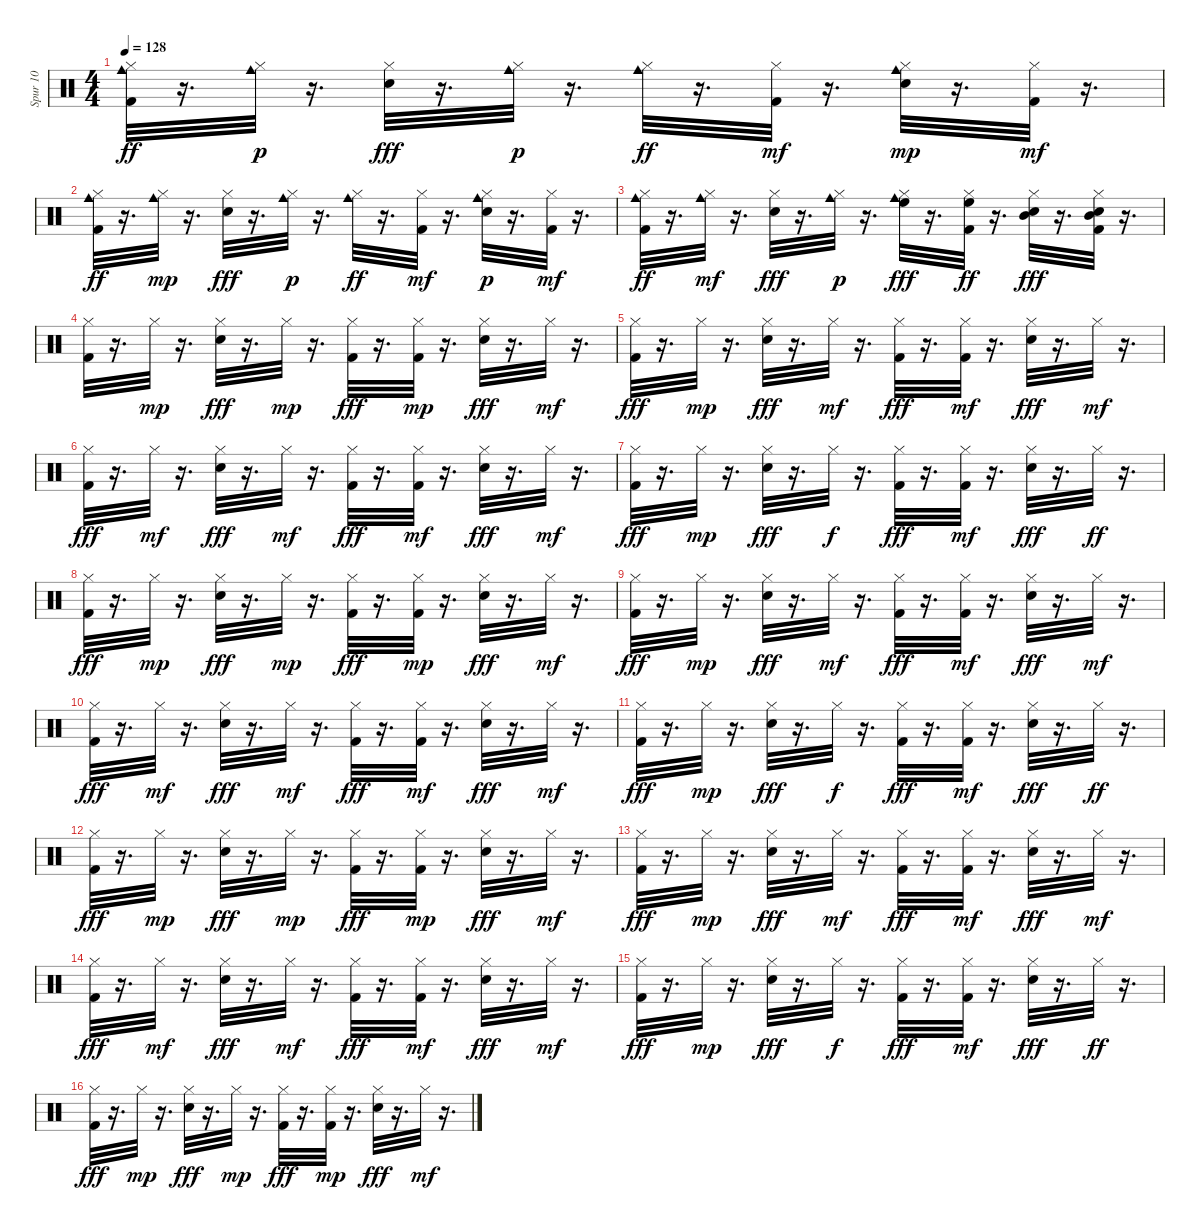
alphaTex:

\track ("Spur 10" "Spur 10") {instrument percussion}
\staff {score}
\articulation defaults
\ts (4 4)
\tempo 128
\clef neutral
\ks c
("Kick (hit) 2" "Hi-Hat (closed)" "Cowbell medium (hit)").32{dy ff} r.16{d} ("Hi-Hat (closed)" "Cowbell medium (hit)").32{dy p} r.16{d} ("Electric Snare (hit)" "Hi-Hat (closed)").32{dy fff} r.16{d} ("Hi-Hat (closed)" "Cowbell medium (hit)").32{dy p} r.16{d} ("Hi-Hat (closed)" "Cowbell medium (hit)").32{dy ff} r.16{d} ("Kick (hit) 2" "Hi-Hat (closed)").32{dy mf} r.16{d} ("Electric Snare (hit)" "Hi-Hat (closed)" "Cowbell medium (hit)").32{dy mp} r.16{d} ("Kick (hit) 2" "Hi-Hat (closed)").32{dy mf} r.16{d} |
("Kick (hit) 2" "Hi-Hat (closed)" "Cowbell medium (hit)").32{dy ff} r.16{d} ("Hi-Hat (closed)" "Cowbell medium (hit)").32{dy mp} r.16{d} ("Electric Snare (hit)" "Hi-Hat (closed)").32{dy fff} r.16{d} ("Hi-Hat (closed)" "Cowbell medium (hit)").32{dy p} r.16{d} ("Hi-Hat (closed)" "Cowbell medium (hit)").32{dy ff} r.16{d} ("Kick (hit) 2" "Hi-Hat (closed)").32{dy mf} r.16{d} ("Electric Snare (hit)" "Hi-Hat (closed)" "Cowbell medium (hit)").32{dy p} r.16{d} ("Kick (hit) 2" "Hi-Hat (closed)").32{dy mf} r.16{d} |
("Kick (hit) 2" "Hi-Hat (closed)" "Cowbell medium (hit)").32{dy ff} r.16{d} ("Hi-Hat (closed)" "Cowbell medium (hit)").32{dy mf} r.16{d} ("Electric Snare (hit)" "Hi-Hat (closed)").32{dy fff} r.16{d} ("Hi-Hat (closed)" "Cowbell medium (hit)").32{dy p} r.16{d} ("Hi-Hat (closed)" "Cowbell medium (hit)" "High Floor Tom (hit)").32{dy fff} r.16{d} ("Kick (hit) 2" "Hi-Hat (closed)" "High Floor Tom (hit)").32{dy ff} r.16{d} ("Electric Snare (hit)" "Hi-Hat (closed)" "Mid Tom (hit)").32{dy fff} r.16{d} ("Kick (hit) 2" "Hi-Hat (closed)" "Electric Snare (hit)" "Mid Tom (hit)").32 r.16{d} |
("Kick (hit) 2" "Hi-Hat (closed)").32 r.16{d} "Hi-Hat (closed)".32{dy mp} r.16{d} ("Electric Snare (hit)" "Hi-Hat (closed)").32{dy fff} r.16{d} "Hi-Hat (closed)".32{dy mp} r.16{d} ("Kick (hit) 2" "Hi-Hat (closed)").32{dy fff} r.16{d} ("Kick (hit) 2" "Hi-Hat (closed)").32{dy mp} r.16{d} ("Electric Snare (hit)" "Hi-Hat (closed)").32{dy fff} r.16{d} "Hi-Hat (closed)".32{dy mf} r.16{d} |
("Kick (hit) 2" "Hi-Hat (closed)").32{dy fff} r.16{d} "Hi-Hat (closed)".32{dy mp} r.16{d} ("Electric Snare (hit)" "Hi-Hat (closed)").32{dy fff} r.16{d} "Hi-Hat (closed)".32{dy mf} r.16{d} ("Kick (hit) 2" "Hi-Hat (closed)").32{dy fff} r.16{d} ("Kick (hit) 2" "Hi-Hat (closed)").32{dy mf} r.16{d} ("Electric Snare (hit)" "Hi-Hat (closed)").32{dy fff} r.16{d} "Hi-Hat (closed)".32{dy mf} r.16{d} |
("Kick (hit) 2" "Hi-Hat (closed)").32{dy fff} r.16{d} "Hi-Hat (closed)".32{dy mf} r.16{d} ("Electric Snare (hit)" "Hi-Hat (closed)").32{dy fff} r.16{d} "Hi-Hat (closed)".32{dy mf} r.16{d} ("Kick (hit) 2" "Hi-Hat (closed)").32{dy fff} r.16{d} ("Kick (hit) 2" "Hi-Hat (closed)").32{dy mf} r.16{d} ("Electric Snare (hit)" "Hi-Hat (closed)").32{dy fff} r.16{d} "Hi-Hat (closed)".32{dy mf} r.16{d} |
("Kick (hit) 2" "Hi-Hat (closed)").32{dy fff} r.16{d} "Hi-Hat (closed)".32{dy mp} r.16{d} ("Electric Snare (hit)" "Hi-Hat (closed)").32{dy fff} r.16{d} "Hi-Hat (closed)".32{dy f} r.16{d} ("Kick (hit) 2" "Hi-Hat (closed)").32{dy fff} r.16{d} ("Kick (hit) 2" "Hi-Hat (closed)").32{dy mf} r.16{d} ("Electric Snare (hit)" "Hi-Hat (closed)").32{dy fff} r.16{d} "Hi-Hat (closed)".32{dy ff} r.16{d} |
("Kick (hit) 2" "Hi-Hat (closed)").32{dy fff} r.16{d} "Hi-Hat (closed)".32{dy mp} r.16{d} ("Electric Snare (hit)" "Hi-Hat (closed)").32{dy fff} r.16{d} "Hi-Hat (closed)".32{dy mp} r.16{d} ("Kick (hit) 2" "Hi-Hat (closed)").32{dy fff} r.16{d} ("Kick (hit) 2" "Hi-Hat (closed)").32{dy mp} r.16{d} ("Electric Snare (hit)" "Hi-Hat (closed)").32{dy fff} r.16{d} "Hi-Hat (closed)".32{dy mf} r.16{d} |
("Kick (hit) 2" "Hi-Hat (closed)").32{dy fff} r.16{d} "Hi-Hat (closed)".32{dy mp} r.16{d} ("Electric Snare (hit)" "Hi-Hat (closed)").32{dy fff} r.16{d} "Hi-Hat (closed)".32{dy mf} r.16{d} ("Kick (hit) 2" "Hi-Hat (closed)").32{dy fff} r.16{d} ("Kick (hit) 2" "Hi-Hat (closed)").32{dy mf} r.16{d} ("Electric Snare (hit)" "Hi-Hat (closed)").32{dy fff} r.16{d} "Hi-Hat (closed)".32{dy mf} r.16{d} |
("Kick (hit) 2" "Hi-Hat (closed)").32{dy fff} r.16{d} "Hi-Hat (closed)".32{dy mf} r.16{d} ("Electric Snare (hit)" "Hi-Hat (closed)").32{dy fff} r.16{d} "Hi-Hat (closed)".32{dy mf} r.16{d} ("Kick (hit) 2" "Hi-Hat (closed)").32{dy fff} r.16{d} ("Kick (hit) 2" "Hi-Hat (closed)").32{dy mf} r.16{d} ("Electric Snare (hit)" "Hi-Hat (closed)").32{dy fff} r.16{d} "Hi-Hat (closed)".32{dy mf} r.16{d} |
("Kick (hit) 2" "Hi-Hat (closed)").32{dy fff} r.16{d} "Hi-Hat (closed)".32{dy mp} r.16{d} ("Electric Snare (hit)" "Hi-Hat (closed)").32{dy fff} r.16{d} "Hi-Hat (closed)".32{dy f} r.16{d} ("Kick (hit) 2" "Hi-Hat (closed)").32{dy fff} r.16{d} ("Kick (hit) 2" "Hi-Hat (closed)").32{dy mf} r.16{d} ("Electric Snare (hit)" "Hi-Hat (closed)").32{dy fff} r.16{d} "Hi-Hat (closed)".32{dy ff} r.16{d} |
("Kick (hit) 2" "Hi-Hat (closed)").32{dy fff} r.16{d} "Hi-Hat (closed)".32{dy mp} r.16{d} ("Electric Snare (hit)" "Hi-Hat (closed)").32{dy fff} r.16{d} "Hi-Hat (closed)".32{dy mp} r.16{d} ("Kick (hit) 2" "Hi-Hat (closed)").32{dy fff} r.16{d} ("Kick (hit) 2" "Hi-Hat (closed)").32{dy mp} r.16{d} ("Electric Snare (hit)" "Hi-Hat (closed)").32{dy fff} r.16{d} "Hi-Hat (closed)".32{dy mf} r.16{d} |
("Kick (hit) 2" "Hi-Hat (closed)").32{dy fff} r.16{d} "Hi-Hat (closed)".32{dy mp} r.16{d} ("Electric Snare (hit)" "Hi-Hat (closed)").32{dy fff} r.16{d} "Hi-Hat (closed)".32{dy mf} r.16{d} ("Kick (hit) 2" "Hi-Hat (closed)").32{dy fff} r.16{d} ("Kick (hit) 2" "Hi-Hat (closed)").32{dy mf} r.16{d} ("Electric Snare (hit)" "Hi-Hat (closed)").32{dy fff} r.16{d} "Hi-Hat (closed)".32{dy mf} r.16{d} |
("Kick (hit) 2" "Hi-Hat (closed)").32{dy fff} r.16{d} "Hi-Hat (closed)".32{dy mf} r.16{d} ("Electric Snare (hit)" "Hi-Hat (closed)").32{dy fff} r.16{d} "Hi-Hat (closed)".32{dy mf} r.16{d} ("Kick (hit) 2" "Hi-Hat (closed)").32{dy fff} r.16{d} ("Kick (hit) 2" "Hi-Hat (closed)").32{dy mf} r.16{d} ("Electric Snare (hit)" "Hi-Hat (closed)").32{dy fff} r.16{d} "Hi-Hat (closed)".32{dy mf} r.16{d} |
("Kick (hit) 2" "Hi-Hat (closed)").32{dy fff} r.16{d} "Hi-Hat (closed)".32{dy mp} r.16{d} ("Electric Snare (hit)" "Hi-Hat (closed)").32{dy fff} r.16{d} "Hi-Hat (closed)".32{dy f} r.16{d} ("Kick (hit) 2" "Hi-Hat (closed)").32{dy fff} r.16{d} ("Kick (hit) 2" "Hi-Hat (closed)").32{dy mf} r.16{d} ("Electric Snare (hit)" "Hi-Hat (closed)").32{dy fff} r.16{d} "Hi-Hat (closed)".32{dy ff} r.16{d} |
("Kick (hit) 2" "Hi-Hat (closed)").32{dy fff} r.16{d} "Hi-Hat (closed)".32{dy mp} r.16{d} ("Electric Snare (hit)" "Hi-Hat (closed)").32{dy fff} r.16{d} "Hi-Hat (closed)".32{dy mp} r.16{d} ("Kick (hit) 2" "Hi-Hat (closed)").32{dy fff} r.16{d} ("Kick (hit) 2" "Hi-Hat (closed)").32{dy mp} r.16{d} ("Electric Snare (hit)" "Hi-Hat (closed)").32{dy fff} r.16{d} "Hi-Hat (closed)".32{dy mf} r.16{d}
